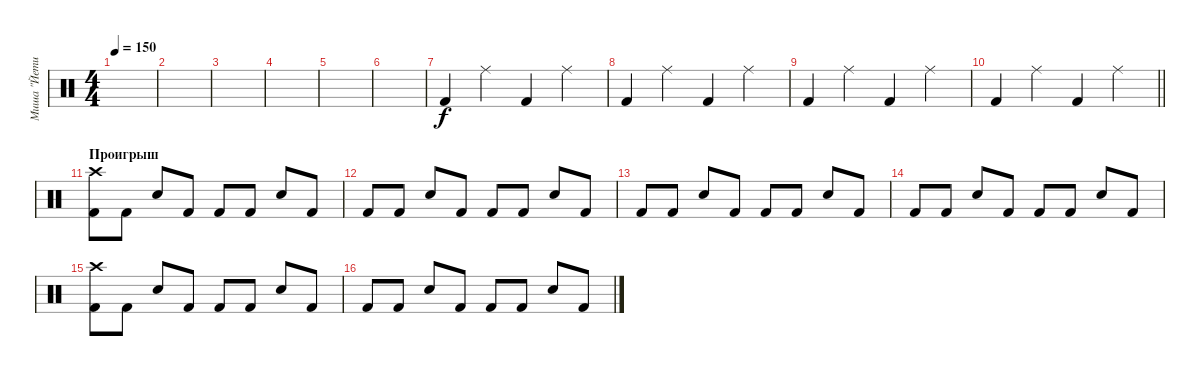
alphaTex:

\track ("Миша \"Йети\" Евсеев" "Миша \"Йети") {instrument percussion}
\staff {score}
\articulation defaults
\ts (4 4)
\tempo 150
\clef neutral
\ks c
|
|
|
|
|
|
"Kick (hit) 2".4 "Ride (middle)".4 "Kick (hit) 2".4 "Ride (middle)".4 |
"Kick (hit) 2".4 "Ride (middle)".4 "Kick (hit) 2".4 "Ride (middle)".4 |
"Kick (hit) 2".4 "Ride (middle)".4 "Kick (hit) 2".4 "Ride (middle)".4 |
\barLineRight lightlight "Kick (hit) 2".4 "Ride (middle)".4 "Kick (hit) 2".4 "Ride (middle)".4
|
\section ("" "Проигрыш")
("Kick (hit) 2" "Crash high (hit)").8 "Kick (hit) 2".8 "Snare (hit) 2".8 "Kick (hit) 2".8 "Kick (hit) 2".8 "Kick (hit) 2".8 "Snare (hit) 2".8 "Kick (hit) 2".8 |
"Kick (hit) 2".8 "Kick (hit) 2".8 "Snare (hit) 2".8 "Kick (hit) 2".8 "Kick (hit) 2".8 "Kick (hit) 2".8 "Snare (hit) 2".8 "Kick (hit) 2".8 |
"Kick (hit) 2".8 "Kick (hit) 2".8 "Snare (hit) 2".8 "Kick (hit) 2".8 "Kick (hit) 2".8 "Kick (hit) 2".8 "Snare (hit) 2".8 "Kick (hit) 2".8 |
"Kick (hit) 2".8 "Kick (hit) 2".8 "Snare (hit) 2".8 "Kick (hit) 2".8 "Kick (hit) 2".8 "Kick (hit) 2".8 "Snare (hit) 2".8 "Kick (hit) 2".8 |
("Kick (hit) 2" "Crash high (hit)").8 "Kick (hit) 2".8 "Snare (hit) 2".8 "Kick (hit) 2".8 "Kick (hit) 2".8 "Kick (hit) 2".8 "Snare (hit) 2".8 "Kick (hit) 2".8 |
"Kick (hit) 2".8 "Kick (hit) 2".8 "Snare (hit) 2".8 "Kick (hit) 2".8 "Kick (hit) 2".8 "Kick (hit) 2".8 "Snare (hit) 2".8 "Kick (hit) 2".8
